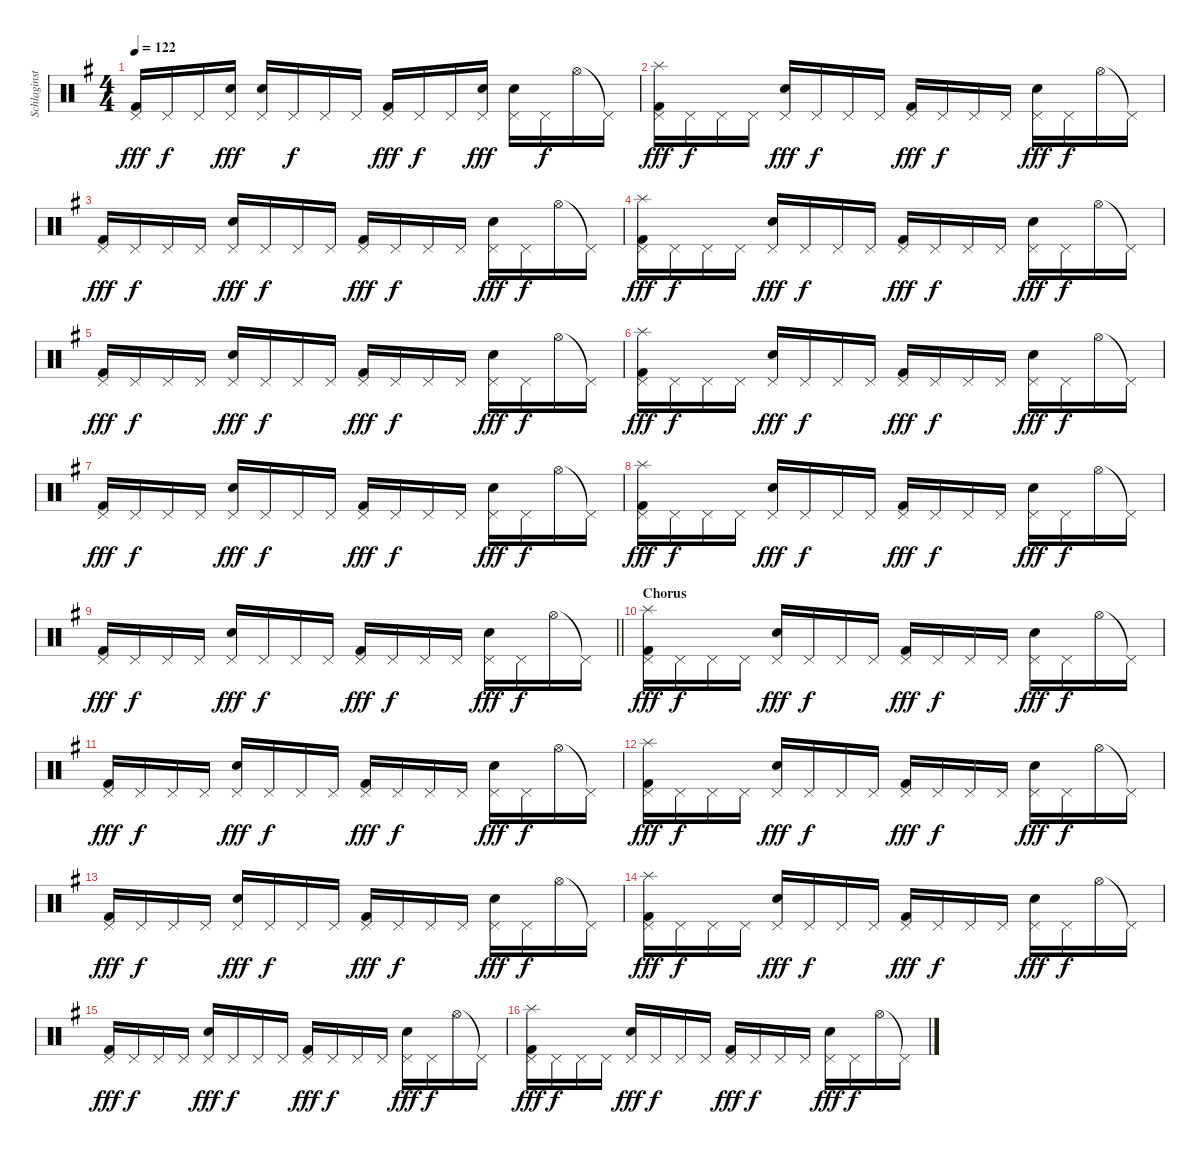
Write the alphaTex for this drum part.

\track ("Schlaginstrumente - Auswahl" "Schlaginst") {instrument percussion}
\staff {score}
\articulation defaults
\ts (4 4)
\tempo 122
\clef neutral
\ks g
("Pedal Hi-Hat (hit)" "Kick (hit) 2").16{dy fff} "Pedal Hi-Hat (hit)".16{dy f} "Pedal Hi-Hat (hit)".16 ("Pedal Hi-Hat (hit)" "Electric Snare (hit)").16{dy fff} ("Pedal Hi-Hat (hit)" "Electric Snare (hit)").16 "Pedal Hi-Hat (hit)".16{dy f} "Pedal Hi-Hat (hit)".16 "Pedal Hi-Hat (hit)".16 ("Pedal Hi-Hat (hit)" "Kick (hit) 2").16{dy fff} "Pedal Hi-Hat (hit)".16{dy f} "Pedal Hi-Hat (hit)".16 ("Pedal Hi-Hat (hit)" "Electric Snare (hit)").16{dy fff} ("Pedal Hi-Hat (hit)" "Electric Snare (hit)").16 "Pedal Hi-Hat (hit)".16{dy f} "Hi-Hat (open)".16 "Pedal Hi-Hat (hit)"{t}.16 |
("Splash (hit)" "Pedal Hi-Hat (hit)" "Kick (hit) 2").16{dy fff} "Pedal Hi-Hat (hit)".16{dy f} "Pedal Hi-Hat (hit)".16 "Pedal Hi-Hat (hit)".16 ("Pedal Hi-Hat (hit)" "Electric Snare (hit)").16{dy fff} "Pedal Hi-Hat (hit)".16{dy f} "Pedal Hi-Hat (hit)".16 "Pedal Hi-Hat (hit)".16 ("Pedal Hi-Hat (hit)" "Kick (hit) 2").16{dy fff} "Pedal Hi-Hat (hit)".16{dy f} "Pedal Hi-Hat (hit)".16 "Pedal Hi-Hat (hit)".16 ("Pedal Hi-Hat (hit)" "Electric Snare (hit)").16{dy fff} "Pedal Hi-Hat (hit)".16{dy f} "Hi-Hat (open)".16 "Pedal Hi-Hat (hit)"{t}.16 |
("Pedal Hi-Hat (hit)" "Kick (hit) 2").16{dy fff} "Pedal Hi-Hat (hit)".16{dy f} "Pedal Hi-Hat (hit)".16 "Pedal Hi-Hat (hit)".16 ("Pedal Hi-Hat (hit)" "Electric Snare (hit)").16{dy fff} "Pedal Hi-Hat (hit)".16{dy f} "Pedal Hi-Hat (hit)".16 "Pedal Hi-Hat (hit)".16 ("Pedal Hi-Hat (hit)" "Kick (hit) 2").16{dy fff} "Pedal Hi-Hat (hit)".16{dy f} "Pedal Hi-Hat (hit)".16 "Pedal Hi-Hat (hit)".16 ("Pedal Hi-Hat (hit)" "Electric Snare (hit)").16{dy fff} "Pedal Hi-Hat (hit)".16{dy f} "Hi-Hat (open)".16 "Pedal Hi-Hat (hit)"{t}.16 |
("Splash (hit)" "Pedal Hi-Hat (hit)" "Kick (hit) 2").16{dy fff} "Pedal Hi-Hat (hit)".16{dy f} "Pedal Hi-Hat (hit)".16 "Pedal Hi-Hat (hit)".16 ("Pedal Hi-Hat (hit)" "Electric Snare (hit)").16{dy fff} "Pedal Hi-Hat (hit)".16{dy f} "Pedal Hi-Hat (hit)".16 "Pedal Hi-Hat (hit)".16 ("Pedal Hi-Hat (hit)" "Kick (hit) 2").16{dy fff} "Pedal Hi-Hat (hit)".16{dy f} "Pedal Hi-Hat (hit)".16 "Pedal Hi-Hat (hit)".16 ("Pedal Hi-Hat (hit)" "Electric Snare (hit)").16{dy fff} "Pedal Hi-Hat (hit)".16{dy f} "Hi-Hat (open)".16 "Pedal Hi-Hat (hit)"{t}.16 |
("Pedal Hi-Hat (hit)" "Kick (hit) 2").16{dy fff} "Pedal Hi-Hat (hit)".16{dy f} "Pedal Hi-Hat (hit)".16 "Pedal Hi-Hat (hit)".16 ("Pedal Hi-Hat (hit)" "Electric Snare (hit)").16{dy fff} "Pedal Hi-Hat (hit)".16{dy f} "Pedal Hi-Hat (hit)".16 "Pedal Hi-Hat (hit)".16 ("Pedal Hi-Hat (hit)" "Kick (hit) 2").16{dy fff} "Pedal Hi-Hat (hit)".16{dy f} "Pedal Hi-Hat (hit)".16 "Pedal Hi-Hat (hit)".16 ("Pedal Hi-Hat (hit)" "Electric Snare (hit)").16{dy fff} "Pedal Hi-Hat (hit)".16{dy f} "Hi-Hat (open)".16 "Pedal Hi-Hat (hit)"{t}.16 |
("Splash (hit)" "Pedal Hi-Hat (hit)" "Kick (hit) 2").16{dy fff} "Pedal Hi-Hat (hit)".16{dy f} "Pedal Hi-Hat (hit)".16 "Pedal Hi-Hat (hit)".16 ("Pedal Hi-Hat (hit)" "Electric Snare (hit)").16{dy fff} "Pedal Hi-Hat (hit)".16{dy f} "Pedal Hi-Hat (hit)".16 "Pedal Hi-Hat (hit)".16 ("Pedal Hi-Hat (hit)" "Kick (hit) 2").16{dy fff} "Pedal Hi-Hat (hit)".16{dy f} "Pedal Hi-Hat (hit)".16 "Pedal Hi-Hat (hit)".16 ("Pedal Hi-Hat (hit)" "Electric Snare (hit)").16{dy fff} "Pedal Hi-Hat (hit)".16{dy f} "Hi-Hat (open)".16 "Pedal Hi-Hat (hit)"{t}.16 |
("Pedal Hi-Hat (hit)" "Kick (hit) 2").16{dy fff} "Pedal Hi-Hat (hit)".16{dy f} "Pedal Hi-Hat (hit)".16 "Pedal Hi-Hat (hit)".16 ("Pedal Hi-Hat (hit)" "Electric Snare (hit)").16{dy fff} "Pedal Hi-Hat (hit)".16{dy f} "Pedal Hi-Hat (hit)".16 "Pedal Hi-Hat (hit)".16 ("Pedal Hi-Hat (hit)" "Kick (hit) 2").16{dy fff} "Pedal Hi-Hat (hit)".16{dy f} "Pedal Hi-Hat (hit)".16 "Pedal Hi-Hat (hit)".16 ("Pedal Hi-Hat (hit)" "Electric Snare (hit)").16{dy fff} "Pedal Hi-Hat (hit)".16{dy f} "Hi-Hat (open)".16 "Pedal Hi-Hat (hit)"{t}.16 |
("Splash (hit)" "Pedal Hi-Hat (hit)" "Kick (hit) 2").16{dy fff} "Pedal Hi-Hat (hit)".16{dy f} "Pedal Hi-Hat (hit)".16 "Pedal Hi-Hat (hit)".16 ("Pedal Hi-Hat (hit)" "Electric Snare (hit)").16{dy fff} "Pedal Hi-Hat (hit)".16{dy f} "Pedal Hi-Hat (hit)".16 "Pedal Hi-Hat (hit)".16 ("Pedal Hi-Hat (hit)" "Kick (hit) 2").16{dy fff} "Pedal Hi-Hat (hit)".16{dy f} "Pedal Hi-Hat (hit)".16 "Pedal Hi-Hat (hit)".16 ("Pedal Hi-Hat (hit)" "Electric Snare (hit)").16{dy fff} "Pedal Hi-Hat (hit)".16{dy f} "Hi-Hat (open)".16 "Pedal Hi-Hat (hit)"{t}.16 |
\barLineRight lightlight
("Pedal Hi-Hat (hit)" "Kick (hit) 2").16{dy fff} "Pedal Hi-Hat (hit)".16{dy f} "Pedal Hi-Hat (hit)".16 "Pedal Hi-Hat (hit)".16 ("Pedal Hi-Hat (hit)" "Electric Snare (hit)").16{dy fff} "Pedal Hi-Hat (hit)".16{dy f} "Pedal Hi-Hat (hit)".16 "Pedal Hi-Hat (hit)".16 ("Pedal Hi-Hat (hit)" "Kick (hit) 2").16{dy fff} "Pedal Hi-Hat (hit)".16{dy f} "Pedal Hi-Hat (hit)".16 "Pedal Hi-Hat (hit)".16 ("Pedal Hi-Hat (hit)" "Electric Snare (hit)").16{dy fff} "Pedal Hi-Hat (hit)".16{dy f} "Hi-Hat (open)".16 "Pedal Hi-Hat (hit)"{t}.16 |
\section ("" "Chorus")
("Splash (hit)" "Pedal Hi-Hat (hit)" "Kick (hit) 2").16{dy fff} "Pedal Hi-Hat (hit)".16{dy f} "Pedal Hi-Hat (hit)".16 "Pedal Hi-Hat (hit)".16 ("Pedal Hi-Hat (hit)" "Electric Snare (hit)").16{dy fff} "Pedal Hi-Hat (hit)".16{dy f} "Pedal Hi-Hat (hit)".16 "Pedal Hi-Hat (hit)".16 ("Pedal Hi-Hat (hit)" "Kick (hit) 2").16{dy fff} "Pedal Hi-Hat (hit)".16{dy f} "Pedal Hi-Hat (hit)".16 "Pedal Hi-Hat (hit)".16 ("Pedal Hi-Hat (hit)" "Electric Snare (hit)").16{dy fff} "Pedal Hi-Hat (hit)".16{dy f} "Hi-Hat (open)".16 "Pedal Hi-Hat (hit)"{t}.16 |
("Pedal Hi-Hat (hit)" "Kick (hit) 2").16{dy fff} "Pedal Hi-Hat (hit)".16{dy f} "Pedal Hi-Hat (hit)".16 "Pedal Hi-Hat (hit)".16 ("Pedal Hi-Hat (hit)" "Electric Snare (hit)").16{dy fff} "Pedal Hi-Hat (hit)".16{dy f} "Pedal Hi-Hat (hit)".16 "Pedal Hi-Hat (hit)".16 ("Pedal Hi-Hat (hit)" "Kick (hit) 2").16{dy fff} "Pedal Hi-Hat (hit)".16{dy f} "Pedal Hi-Hat (hit)".16 "Pedal Hi-Hat (hit)".16 ("Pedal Hi-Hat (hit)" "Electric Snare (hit)").16{dy fff} "Pedal Hi-Hat (hit)".16{dy f} "Hi-Hat (open)".16 "Pedal Hi-Hat (hit)"{t}.16 |
("Splash (hit)" "Pedal Hi-Hat (hit)" "Kick (hit) 2").16{dy fff} "Pedal Hi-Hat (hit)".16{dy f} "Pedal Hi-Hat (hit)".16 "Pedal Hi-Hat (hit)".16 ("Pedal Hi-Hat (hit)" "Electric Snare (hit)").16{dy fff} "Pedal Hi-Hat (hit)".16{dy f} "Pedal Hi-Hat (hit)".16 "Pedal Hi-Hat (hit)".16 ("Pedal Hi-Hat (hit)" "Kick (hit) 2").16{dy fff} "Pedal Hi-Hat (hit)".16{dy f} "Pedal Hi-Hat (hit)".16 "Pedal Hi-Hat (hit)".16 ("Pedal Hi-Hat (hit)" "Electric Snare (hit)").16{dy fff} "Pedal Hi-Hat (hit)".16{dy f} "Hi-Hat (open)".16 "Pedal Hi-Hat (hit)"{t}.16 |
("Pedal Hi-Hat (hit)" "Kick (hit) 2").16{dy fff} "Pedal Hi-Hat (hit)".16{dy f} "Pedal Hi-Hat (hit)".16 "Pedal Hi-Hat (hit)".16 ("Pedal Hi-Hat (hit)" "Electric Snare (hit)").16{dy fff} "Pedal Hi-Hat (hit)".16{dy f} "Pedal Hi-Hat (hit)".16 "Pedal Hi-Hat (hit)".16 ("Pedal Hi-Hat (hit)" "Kick (hit) 2").16{dy fff} "Pedal Hi-Hat (hit)".16{dy f} "Pedal Hi-Hat (hit)".16 "Pedal Hi-Hat (hit)".16 ("Pedal Hi-Hat (hit)" "Electric Snare (hit)").16{dy fff} "Pedal Hi-Hat (hit)".16{dy f} "Hi-Hat (open)".16 "Pedal Hi-Hat (hit)"{t}.16 |
("Splash (hit)" "Pedal Hi-Hat (hit)" "Kick (hit) 2").16{dy fff} "Pedal Hi-Hat (hit)".16{dy f} "Pedal Hi-Hat (hit)".16 "Pedal Hi-Hat (hit)".16 ("Pedal Hi-Hat (hit)" "Electric Snare (hit)").16{dy fff} "Pedal Hi-Hat (hit)".16{dy f} "Pedal Hi-Hat (hit)".16 "Pedal Hi-Hat (hit)".16 ("Pedal Hi-Hat (hit)" "Kick (hit) 2").16{dy fff} "Pedal Hi-Hat (hit)".16{dy f} "Pedal Hi-Hat (hit)".16 "Pedal Hi-Hat (hit)".16 ("Pedal Hi-Hat (hit)" "Electric Snare (hit)").16{dy fff} "Pedal Hi-Hat (hit)".16{dy f} "Hi-Hat (open)".16 "Pedal Hi-Hat (hit)"{t}.16 |
("Pedal Hi-Hat (hit)" "Kick (hit) 2").16{dy fff} "Pedal Hi-Hat (hit)".16{dy f} "Pedal Hi-Hat (hit)".16 "Pedal Hi-Hat (hit)".16 ("Pedal Hi-Hat (hit)" "Electric Snare (hit)").16{dy fff} "Pedal Hi-Hat (hit)".16{dy f} "Pedal Hi-Hat (hit)".16 "Pedal Hi-Hat (hit)".16 ("Pedal Hi-Hat (hit)" "Kick (hit) 2").16{dy fff} "Pedal Hi-Hat (hit)".16{dy f} "Pedal Hi-Hat (hit)".16 "Pedal Hi-Hat (hit)".16 ("Pedal Hi-Hat (hit)" "Electric Snare (hit)").16{dy fff} "Pedal Hi-Hat (hit)".16{dy f} "Hi-Hat (open)".16 "Pedal Hi-Hat (hit)"{t}.16 |
("Splash (hit)" "Pedal Hi-Hat (hit)" "Kick (hit) 2").16{dy fff} "Pedal Hi-Hat (hit)".16{dy f} "Pedal Hi-Hat (hit)".16 "Pedal Hi-Hat (hit)".16 ("Pedal Hi-Hat (hit)" "Electric Snare (hit)").16{dy fff} "Pedal Hi-Hat (hit)".16{dy f} "Pedal Hi-Hat (hit)".16 "Pedal Hi-Hat (hit)".16 ("Pedal Hi-Hat (hit)" "Kick (hit) 2").16{dy fff} "Pedal Hi-Hat (hit)".16{dy f} "Pedal Hi-Hat (hit)".16 "Pedal Hi-Hat (hit)".16 ("Pedal Hi-Hat (hit)" "Electric Snare (hit)").16{dy fff} "Pedal Hi-Hat (hit)".16{dy f} "Hi-Hat (open)".16 "Pedal Hi-Hat (hit)"{t}.16
